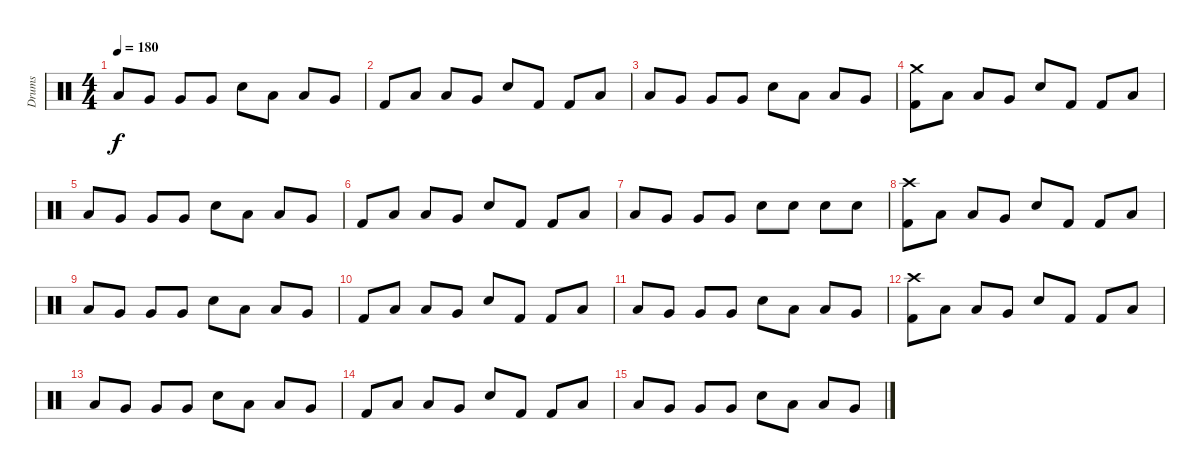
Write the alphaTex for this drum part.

\track ("Drums" "Drums") {instrument percussion}
\staff {score}
\articulation defaults
\ts (4 4)
\tempo 180
\clef neutral
\ks c "Low Tom (hit)".8{dy f} "Very Low Tom (hit)".8 "Very Low Tom (hit)".8 "Very Low Tom (hit)".8 "Electric Snare (hit)".8 "Low Tom (hit)".8 "Low Tom (hit)".8 "Very Low Tom (hit)".8
|
"Kick (hit) 2".8 "Low Tom (hit)".8 "Low Tom (hit)".8 "Very Low Tom (hit)".8 "Electric Snare (hit)".8 "Kick (hit) 2".8 "Kick (hit) 2".8 "Low Tom (hit)".8 |
"Low Tom (hit)".8 "Very Low Tom (hit)".8 "Very Low Tom (hit)".8 "Very Low Tom (hit)".8 "Electric Snare (hit)".8 "Low Tom (hit)".8 "Low Tom (hit)".8 "Very Low Tom (hit)".8 |
("Crash medium (hit)" "Kick (hit) 2").8{volume 8} "Low Tom (hit)".8 "Low Tom (hit)".8 "Very Low Tom (hit)".8 "Electric Snare (hit)".8 "Kick (hit) 2".8 "Kick (hit) 2".8 "Low Tom (hit)".8 |
"Low Tom (hit)".8 "Very Low Tom (hit)".8 "Very Low Tom (hit)".8 "Very Low Tom (hit)".8 "Electric Snare (hit)".8 "Low Tom (hit)".8 "Low Tom (hit)".8 "Very Low Tom (hit)".8 |
"Kick (hit) 2".8 "Low Tom (hit)".8 "Low Tom (hit)".8 "Very Low Tom (hit)".8 "Electric Snare (hit)".8 "Kick (hit) 2".8 "Kick (hit) 2".8 "Low Tom (hit)".8 |
"Low Tom (hit)".8 "Very Low Tom (hit)".8 "Very Low Tom (hit)".8 "Very Low Tom (hit)".8 "Electric Snare (hit)".8 "Electric Snare (hit)".8 "Electric Snare (hit)".8 "Electric Snare (hit)".8 |
("Crash high (hit)" "Kick (hit) 2").8{volume 6} "Low Tom (hit)".8 "Low Tom (hit)".8 "Very Low Tom (hit)".8 "Electric Snare (hit)".8 "Kick (hit) 2".8 "Kick (hit) 2".8 "Low Tom (hit)".8 |
"Low Tom (hit)".8 "Very Low Tom (hit)".8 "Very Low Tom (hit)".8 "Very Low Tom (hit)".8 "Electric Snare (hit)".8 "Low Tom (hit)".8 "Low Tom (hit)".8 "Very Low Tom (hit)".8 |
"Kick (hit) 2".8 "Low Tom (hit)".8 "Low Tom (hit)".8 "Very Low Tom (hit)".8 "Electric Snare (hit)".8 "Kick (hit) 2".8 "Kick (hit) 2".8 "Low Tom (hit)".8 |
"Low Tom (hit)".8 "Very Low Tom (hit)".8 "Very Low Tom (hit)".8 "Very Low Tom (hit)".8 "Electric Snare (hit)".8 "Low Tom (hit)".8 "Low Tom (hit)".8 "Very Low Tom (hit)".8 |
("Crash high (hit)" "Kick (hit) 2").8{volume 4} "Low Tom (hit)".8 "Low Tom (hit)".8 "Very Low Tom (hit)".8 "Electric Snare (hit)".8 "Kick (hit) 2".8 "Kick (hit) 2".8 "Low Tom (hit)".8 |
"Low Tom (hit)".8 "Very Low Tom (hit)".8 "Very Low Tom (hit)".8 "Very Low Tom (hit)".8 "Electric Snare (hit)".8 "Low Tom (hit)".8 "Low Tom (hit)".8 "Very Low Tom (hit)".8 |
"Kick (hit) 2".8 "Low Tom (hit)".8 "Low Tom (hit)".8 "Very Low Tom (hit)".8 "Electric Snare (hit)".8 "Kick (hit) 2".8 "Kick (hit) 2".8 "Low Tom (hit)".8 |
"Low Tom (hit)".8 "Very Low Tom (hit)".8 "Very Low Tom (hit)".8 "Very Low Tom (hit)".8 "Electric Snare (hit)".8 "Low Tom (hit)".8 "Low Tom (hit)".8 "Very Low Tom (hit)".8
